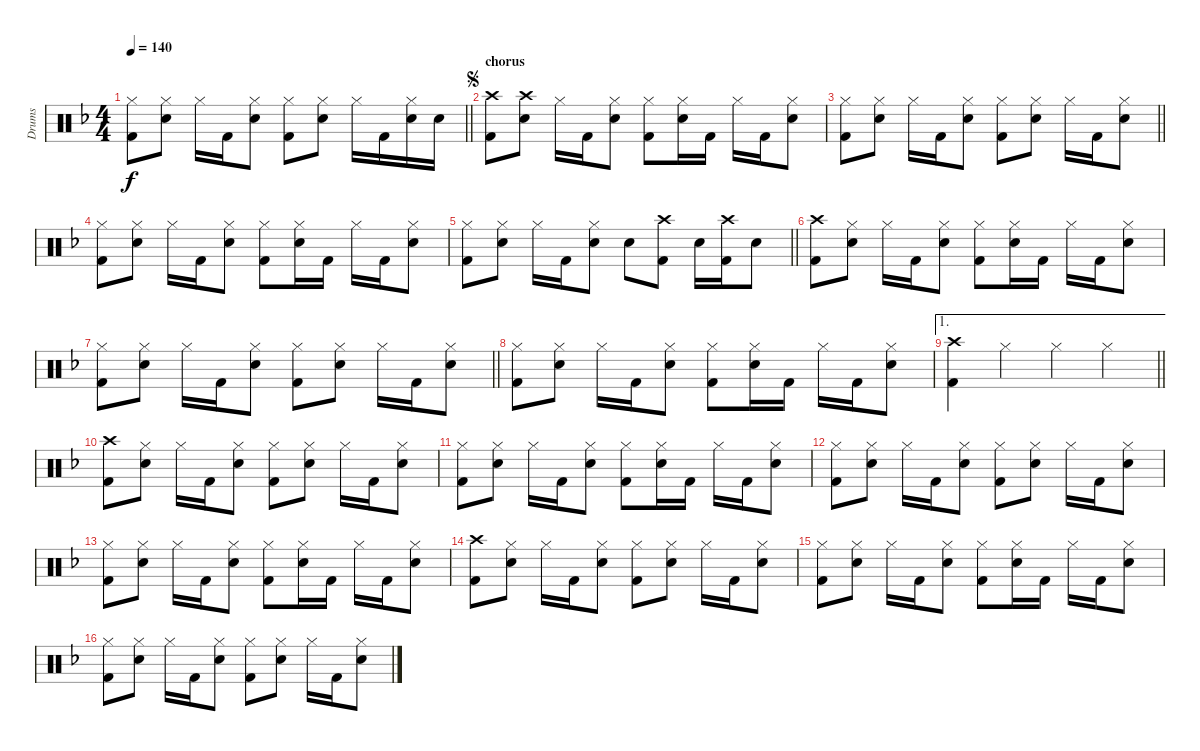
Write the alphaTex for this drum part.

\track ("Drums" "Drums") {instrument percussion}
\staff {score}
\articulation defaults
\ts (4 4)
\tempo 140
\clef neutral
\barLineRight lightlight
\ks dminor
("Hi-Hat (closed)" "Kick (hit) 2").8{dy f} ("Hi-Hat (closed)" "Snare (hit) 2").8 "Hi-Hat (closed)".16 "Kick (hit) 2".16 ("Hi-Hat (closed)" "Snare (hit) 2").8 ("Hi-Hat (closed)" "Kick (hit) 2").8 ("Hi-Hat (closed)" "Snare (hit) 2").8 "Hi-Hat (closed)".16 "Kick (hit) 2".16 ("Hi-Hat (closed)" "Snare (hit) 2").16 "Snare (hit) 2".16 |
\section ("" "chorus")
\jump segno
("Crash high (hit)" "Kick (hit) 2").8 ("Crash high (hit)" "Snare (hit) 2").8 "Hi-Hat (closed)".16 "Kick (hit) 2".16 ("Hi-Hat (closed)" "Snare (hit) 2").8 ("Hi-Hat (closed)" "Kick (hit) 2").8 ("Hi-Hat (closed)" "Snare (hit) 2").16 "Kick (hit) 2".16 "Hi-Hat (closed)".16 "Kick (hit) 2".16 ("Hi-Hat (closed)" "Snare (hit) 2").8 |
\barLineRight lightlight
("Hi-Hat (closed)" "Kick (hit) 2").8 ("Hi-Hat (closed)" "Snare (hit) 2").8 "Hi-Hat (closed)".16 "Kick (hit) 2".16 ("Hi-Hat (closed)" "Snare (hit) 2").8 ("Hi-Hat (closed)" "Kick (hit) 2").8 ("Hi-Hat (closed)" "Snare (hit) 2").8 "Hi-Hat (closed)".16 "Kick (hit) 2".16 ("Hi-Hat (closed)" "Snare (hit) 2").8 |
("Hi-Hat (closed)" "Kick (hit) 2").8 ("Hi-Hat (closed)" "Snare (hit) 2").8 "Hi-Hat (closed)".16 "Kick (hit) 2".16 ("Hi-Hat (closed)" "Snare (hit) 2").8 ("Hi-Hat (closed)" "Kick (hit) 2").8 ("Hi-Hat (closed)" "Snare (hit) 2").16 "Kick (hit) 2".16 "Hi-Hat (closed)".16 "Kick (hit) 2".16 ("Hi-Hat (closed)" "Snare (hit) 2").8 |
\barLineRight lightlight
("Hi-Hat (closed)" "Kick (hit) 2").8 ("Hi-Hat (closed)" "Snare (hit) 2").8 "Hi-Hat (closed)".16 "Kick (hit) 2".16 ("Hi-Hat (closed)" "Snare (hit) 2").8 "Snare (hit) 2".8 ("Crash high (hit)" "Kick (hit) 2").8 "Snare (hit) 2".16 ("Crash high (hit)" "Kick (hit) 2").16 "Snare (hit) 2".8 |
("Crash high (hit)" "Kick (hit) 2").8 ("Hi-Hat (closed)" "Snare (hit) 2").8 "Hi-Hat (closed)".16 "Kick (hit) 2".16 ("Hi-Hat (closed)" "Snare (hit) 2").8 ("Hi-Hat (closed)" "Kick (hit) 2").8 ("Hi-Hat (closed)" "Snare (hit) 2").16 "Kick (hit) 2".16 "Hi-Hat (closed)".16 "Kick (hit) 2".16 ("Hi-Hat (closed)" "Snare (hit) 2").8 |
\barLineRight lightlight
("Hi-Hat (closed)" "Kick (hit) 2").8 ("Hi-Hat (closed)" "Snare (hit) 2").8 "Hi-Hat (closed)".16 "Kick (hit) 2".16 ("Hi-Hat (closed)" "Snare (hit) 2").8 ("Hi-Hat (closed)" "Kick (hit) 2").8 ("Hi-Hat (closed)" "Snare (hit) 2").8 "Hi-Hat (closed)".16 "Kick (hit) 2".16 ("Hi-Hat (closed)" "Snare (hit) 2").8 |
("Hi-Hat (closed)" "Kick (hit) 2").8 ("Hi-Hat (closed)" "Snare (hit) 2").8 "Hi-Hat (closed)".16 "Kick (hit) 2".16 ("Hi-Hat (closed)" "Snare (hit) 2").8 ("Hi-Hat (closed)" "Kick (hit) 2").8 ("Hi-Hat (closed)" "Snare (hit) 2").16 "Kick (hit) 2".16 "Hi-Hat (closed)".16 "Kick (hit) 2".16 ("Hi-Hat (closed)" "Snare (hit) 2").8 |
\ae 1
\barLineRight lightlight
("Crash high (hit)" "Kick (hit) 2").4 "Hi-Hat (closed)".4 "Hi-Hat (closed)".4 "Hi-Hat (closed)".4 |
("Crash high (hit)" "Kick (hit) 2").8 ("Hi-Hat (closed)" "Snare (hit) 2").8 "Hi-Hat (closed)".16 "Kick (hit) 2".16 ("Hi-Hat (closed)" "Snare (hit) 2").8 ("Hi-Hat (closed)" "Kick (hit) 2").8 ("Hi-Hat (closed)" "Snare (hit) 2").8 "Hi-Hat (closed)".16 "Kick (hit) 2".16 ("Hi-Hat (closed)" "Snare (hit) 2").8 |
("Hi-Hat (closed)" "Kick (hit) 2").8 ("Hi-Hat (closed)" "Snare (hit) 2").8 "Hi-Hat (closed)".16 "Kick (hit) 2".16 ("Hi-Hat (closed)" "Snare (hit) 2").8 ("Hi-Hat (closed)" "Kick (hit) 2").8 ("Hi-Hat (closed)" "Snare (hit) 2").16 "Kick (hit) 2".16 "Hi-Hat (closed)".16 "Kick (hit) 2".16 ("Hi-Hat (closed)" "Snare (hit) 2").8 |
("Hi-Hat (closed)" "Kick (hit) 2").8 ("Hi-Hat (closed)" "Snare (hit) 2").8 "Hi-Hat (closed)".16 "Kick (hit) 2".16 ("Hi-Hat (closed)" "Snare (hit) 2").8 ("Hi-Hat (closed)" "Kick (hit) 2").8 ("Hi-Hat (closed)" "Snare (hit) 2").8 "Hi-Hat (closed)".16 "Kick (hit) 2".16 ("Hi-Hat (closed)" "Snare (hit) 2").8 |
("Hi-Hat (closed)" "Kick (hit) 2").8 ("Hi-Hat (closed)" "Snare (hit) 2").8 "Hi-Hat (closed)".16 "Kick (hit) 2".16 ("Hi-Hat (closed)" "Snare (hit) 2").8 ("Hi-Hat (closed)" "Kick (hit) 2").8 ("Hi-Hat (closed)" "Snare (hit) 2").16 "Kick (hit) 2".16 "Hi-Hat (closed)".16 "Kick (hit) 2".16 ("Hi-Hat (closed)" "Snare (hit) 2").8 |
("Crash high (hit)" "Kick (hit) 2").8 ("Hi-Hat (closed)" "Snare (hit) 2").8 "Hi-Hat (closed)".16 "Kick (hit) 2".16 ("Hi-Hat (closed)" "Snare (hit) 2").8 ("Hi-Hat (closed)" "Kick (hit) 2").8 ("Hi-Hat (closed)" "Snare (hit) 2").8 "Hi-Hat (closed)".16 "Kick (hit) 2".16 ("Hi-Hat (closed)" "Snare (hit) 2").8 |
("Hi-Hat (closed)" "Kick (hit) 2").8 ("Hi-Hat (closed)" "Snare (hit) 2").8 "Hi-Hat (closed)".16 "Kick (hit) 2".16 ("Hi-Hat (closed)" "Snare (hit) 2").8 ("Hi-Hat (closed)" "Kick (hit) 2").8 ("Hi-Hat (closed)" "Snare (hit) 2").16 "Kick (hit) 2".16 "Hi-Hat (closed)".16 "Kick (hit) 2".16 ("Hi-Hat (closed)" "Snare (hit) 2").8 |
("Hi-Hat (closed)" "Kick (hit) 2").8 ("Hi-Hat (closed)" "Snare (hit) 2").8 "Hi-Hat (closed)".16 "Kick (hit) 2".16 ("Hi-Hat (closed)" "Snare (hit) 2").8 ("Hi-Hat (closed)" "Kick (hit) 2").8 ("Hi-Hat (closed)" "Snare (hit) 2").8 "Hi-Hat (closed)".16 "Kick (hit) 2".16 ("Hi-Hat (closed)" "Snare (hit) 2").8
